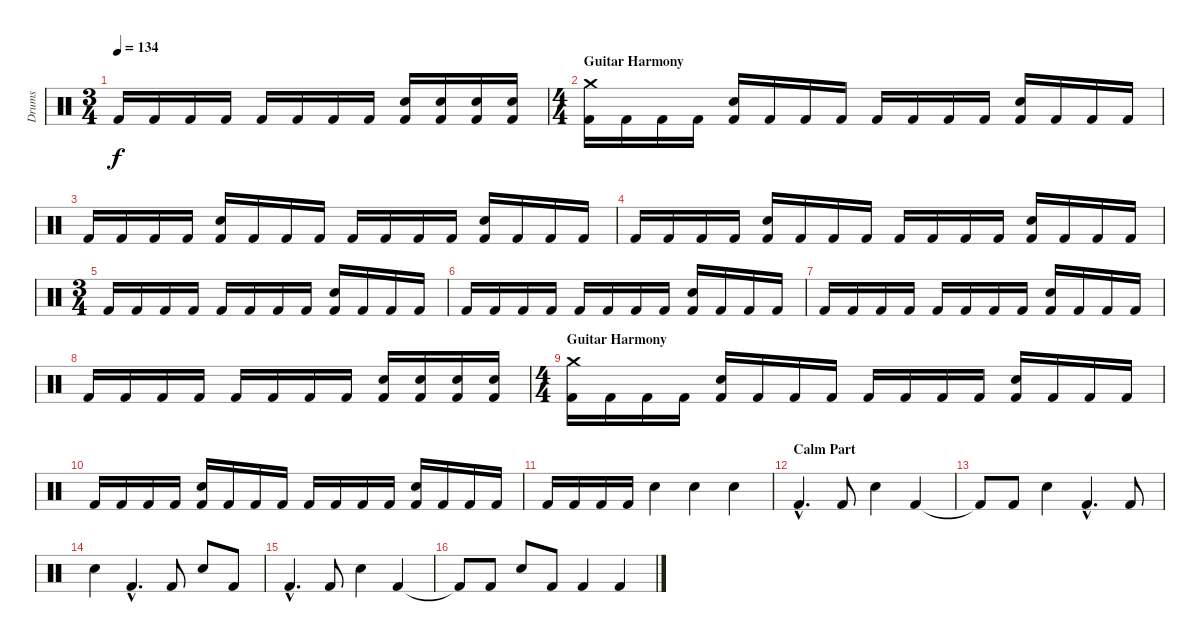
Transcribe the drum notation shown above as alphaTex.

\track ("Drums" "Drums") {instrument percussion}
\staff {score}
\articulation defaults
\ts (3 4)
\tempo 134
\clef neutral
\ks c "Kick (hit) 2".16{dy f} "Kick (hit) 2".16 "Kick (hit) 2".16 "Kick (hit) 2".16 "Kick (hit) 2".16 "Kick (hit) 2".16 "Kick (hit) 2".16 "Kick (hit) 2".16
("Kick (hit) 2" "Snare (hit) 2").16 ("Kick (hit) 2" "Snare (hit) 2").16 ("Kick (hit) 2" "Snare (hit) 2").16 ("Kick (hit) 2" "Snare (hit) 2").16 |
\ts (4 4)
\section ("" "Guitar Harmony")
("Kick (hit) 2" "Crash medium (hit)").16 "Kick (hit) 2".16 "Kick (hit) 2".16 "Kick (hit) 2".16 ("Kick (hit) 2" "Snare (hit) 2").16 "Kick (hit) 2".16 "Kick (hit) 2".16 "Kick (hit) 2".16 "Kick (hit) 2".16 "Kick (hit) 2".16 "Kick (hit) 2".16 "Kick (hit) 2".16 ("Kick (hit) 2" "Snare (hit) 2").16 "Kick (hit) 2".16 "Kick (hit) 2".16 "Kick (hit) 2".16 |
"Kick (hit) 2".16 "Kick (hit) 2".16 "Kick (hit) 2".16 "Kick (hit) 2".16 ("Kick (hit) 2" "Snare (hit) 2").16 "Kick (hit) 2".16 "Kick (hit) 2".16 "Kick (hit) 2".16 "Kick (hit) 2".16 "Kick (hit) 2".16 "Kick (hit) 2".16 "Kick (hit) 2".16 ("Kick (hit) 2" "Snare (hit) 2").16 "Kick (hit) 2".16 "Kick (hit) 2".16 "Kick (hit) 2".16 |
"Kick (hit) 2".16 "Kick (hit) 2".16 "Kick (hit) 2".16 "Kick (hit) 2".16 ("Kick (hit) 2" "Snare (hit) 2").16 "Kick (hit) 2".16 "Kick (hit) 2".16 "Kick (hit) 2".16 "Kick (hit) 2".16 "Kick (hit) 2".16 "Kick (hit) 2".16 "Kick (hit) 2".16 ("Kick (hit) 2" "Snare (hit) 2").16 "Kick (hit) 2".16 "Kick (hit) 2".16 "Kick (hit) 2".16 |
\ts (3 4)
"Kick (hit) 2".16 "Kick (hit) 2".16 "Kick (hit) 2".16 "Kick (hit) 2".16 "Kick (hit) 2".16 "Kick (hit) 2".16 "Kick (hit) 2".16 "Kick (hit) 2".16 ("Kick (hit) 2" "Snare (hit) 2").16 "Kick (hit) 2".16 "Kick (hit) 2".16 "Kick (hit) 2".16 |
"Kick (hit) 2".16 "Kick (hit) 2".16 "Kick (hit) 2".16 "Kick (hit) 2".16 "Kick (hit) 2".16 "Kick (hit) 2".16 "Kick (hit) 2".16 "Kick (hit) 2".16 ("Kick (hit) 2" "Snare (hit) 2").16 "Kick (hit) 2".16 "Kick (hit) 2".16 "Kick (hit) 2".16 |
"Kick (hit) 2".16 "Kick (hit) 2".16 "Kick (hit) 2".16 "Kick (hit) 2".16 "Kick (hit) 2".16 "Kick (hit) 2".16 "Kick (hit) 2".16 "Kick (hit) 2".16 ("Kick (hit) 2" "Snare (hit) 2").16 "Kick (hit) 2".16 "Kick (hit) 2".16 "Kick (hit) 2".16 |
"Kick (hit) 2".16 "Kick (hit) 2".16 "Kick (hit) 2".16 "Kick (hit) 2".16 "Kick (hit) 2".16 "Kick (hit) 2".16 "Kick (hit) 2".16 "Kick (hit) 2".16 ("Kick (hit) 2" "Snare (hit) 2").16 ("Kick (hit) 2" "Snare (hit) 2").16 ("Kick (hit) 2" "Snare (hit) 2").16 ("Kick (hit) 2" "Snare (hit) 2").16 |
\ts (4 4)
\section ("" "Guitar Harmony")
("Kick (hit) 2" "Crash medium (hit)").16 "Kick (hit) 2".16 "Kick (hit) 2".16 "Kick (hit) 2".16 ("Kick (hit) 2" "Snare (hit) 2").16 "Kick (hit) 2".16 "Kick (hit) 2".16 "Kick (hit) 2".16 "Kick (hit) 2".16 "Kick (hit) 2".16 "Kick (hit) 2".16 "Kick (hit) 2".16 ("Kick (hit) 2" "Snare (hit) 2").16 "Kick (hit) 2".16 "Kick (hit) 2".16 "Kick (hit) 2".16 |
"Kick (hit) 2".16 "Kick (hit) 2".16 "Kick (hit) 2".16 "Kick (hit) 2".16 ("Kick (hit) 2" "Snare (hit) 2").16 "Kick (hit) 2".16 "Kick (hit) 2".16 "Kick (hit) 2".16 "Kick (hit) 2".16 "Kick (hit) 2".16 "Kick (hit) 2".16 "Kick (hit) 2".16 ("Kick (hit) 2" "Snare (hit) 2").16 "Kick (hit) 2".16 "Kick (hit) 2".16 "Kick (hit) 2".16 |
"Kick (hit) 2".16 "Kick (hit) 2".16 "Kick (hit) 2".16 "Kick (hit) 2".16 "Snare (hit) 2".4 "Snare (hit) 2".4 "Snare (hit) 2".4 |
\section ("" "Calm Part")
"Kick (hit) 2"{hac}.4{d} "Kick (hit) 2".8 "Snare (hit) 2".4 "Kick (hit) 2".4 |
"Kick (hit) 2"{t}.8 "Kick (hit) 2".8 "Snare (hit) 2".4 "Kick (hit) 2"{hac}.4{d} "Kick (hit) 2".8 |
"Snare (hit) 2".4 "Kick (hit) 2"{hac}.4{d} "Kick (hit) 2".8 "Snare (hit) 2".8 "Kick (hit) 2".8 |
"Kick (hit) 2"{hac}.4{d} "Kick (hit) 2".8 "Snare (hit) 2".4 "Kick (hit) 2".4 |
"Kick (hit) 2"{t}.8 "Kick (hit) 2".8 "Snare (hit) 2".8 "Kick (hit) 2".8 "Kick (hit) 2".4 "Kick (hit) 2".4
